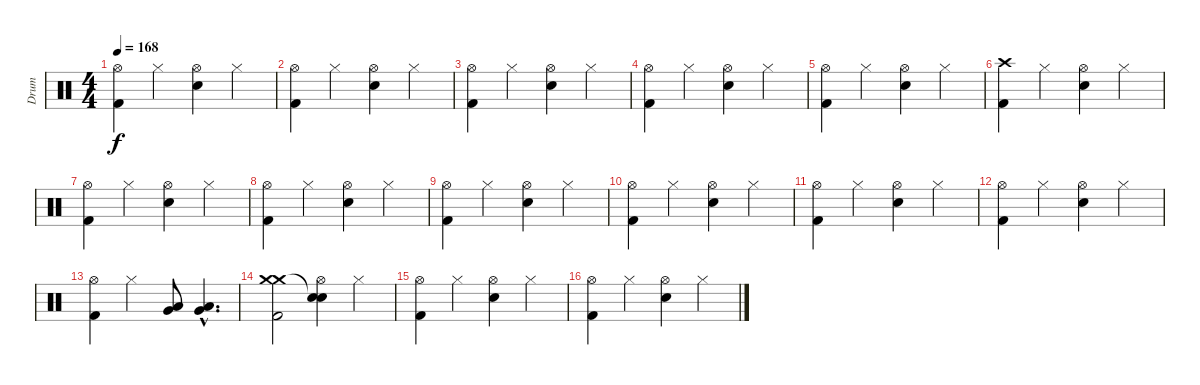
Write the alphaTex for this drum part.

\track ("Drum" "Drum") {instrument percussion}
\staff {score}
\articulation defaults
\ts (4 4)
\tempo 168
\clef neutral
\ks c
("Kick (hit) 2" "Hi-Hat (open)").4{dy f} "Hi-Hat (closed)".4 ("Electric Snare (hit)" "Hi-Hat (open)").4 "Hi-Hat (closed)".4 |
("Kick (hit) 2" "Hi-Hat (open)").4 "Hi-Hat (closed)".4 ("Electric Snare (hit)" "Hi-Hat (open)").4 "Hi-Hat (closed)".4 |
("Kick (hit) 2" "Hi-Hat (open)").4 "Hi-Hat (closed)".4 ("Electric Snare (hit)" "Hi-Hat (open)").4 "Hi-Hat (closed)".4 |
("Kick (hit) 2" "Hi-Hat (open)").4 "Hi-Hat (closed)".4 ("Electric Snare (hit)" "Hi-Hat (open)").4 "Hi-Hat (closed)".4 |
("Kick (hit) 2" "Hi-Hat (open)").4 "Hi-Hat (closed)".4 ("Electric Snare (hit)" "Hi-Hat (open)").4 "Hi-Hat (closed)".4 |
("Kick (hit) 2" "Crash high (hit)").4 "Hi-Hat (closed)".4 ("Electric Snare (hit)" "Hi-Hat (open)").4 "Hi-Hat (closed)".4 |
("Kick (hit) 2" "Hi-Hat (open)").4 "Hi-Hat (closed)".4 ("Electric Snare (hit)" "Hi-Hat (open)").4 "Hi-Hat (closed)".4 |
("Kick (hit) 2" "Hi-Hat (open)").4 "Hi-Hat (closed)".4 ("Electric Snare (hit)" "Hi-Hat (open)").4 "Hi-Hat (closed)".4 |
("Kick (hit) 2" "Hi-Hat (open)").4 "Hi-Hat (closed)".4 ("Electric Snare (hit)" "Hi-Hat (open)").4 "Hi-Hat (closed)".4 |
("Kick (hit) 2" "Hi-Hat (open)").4 "Hi-Hat (closed)".4 ("Electric Snare (hit)" "Hi-Hat (open)").4 "Hi-Hat (closed)".4 |
("Kick (hit) 2" "Hi-Hat (open)").4 "Hi-Hat (closed)".4 ("Electric Snare (hit)" "Hi-Hat (open)").4 "Hi-Hat (closed)".4 |
("Kick (hit) 2" "Hi-Hat (open)").4 "Hi-Hat (closed)".4 ("Electric Snare (hit)" "Hi-Hat (open)").4 "Hi-Hat (closed)".4 |
("Kick (hit) 2" "Hi-Hat (open)").4 "Hi-Hat (closed)".4 ("Low Tom (hit)" "Very Low Tom (hit)").8 ("Low Tom (hit)"{hac} "Very Low Tom (hit)"{hac}).4{d} |
\section ("" "")
("Kick (hit) 2" "Crash medium (hit)" "Crash medium (hit)").2 ("Electric Snare (hit)" "Hi-Hat (open)" "Snare (hit)"{t}).4 "Hi-Hat (closed)".4 |
("Kick (hit) 2" "Hi-Hat (open)").4 "Hi-Hat (closed)".4 ("Electric Snare (hit)" "Hi-Hat (open)").4 "Hi-Hat (closed)".4 |
("Kick (hit) 2" "Hi-Hat (open)").4 "Hi-Hat (closed)".4 ("Electric Snare (hit)" "Hi-Hat (open)").4 "Hi-Hat (closed)".4
